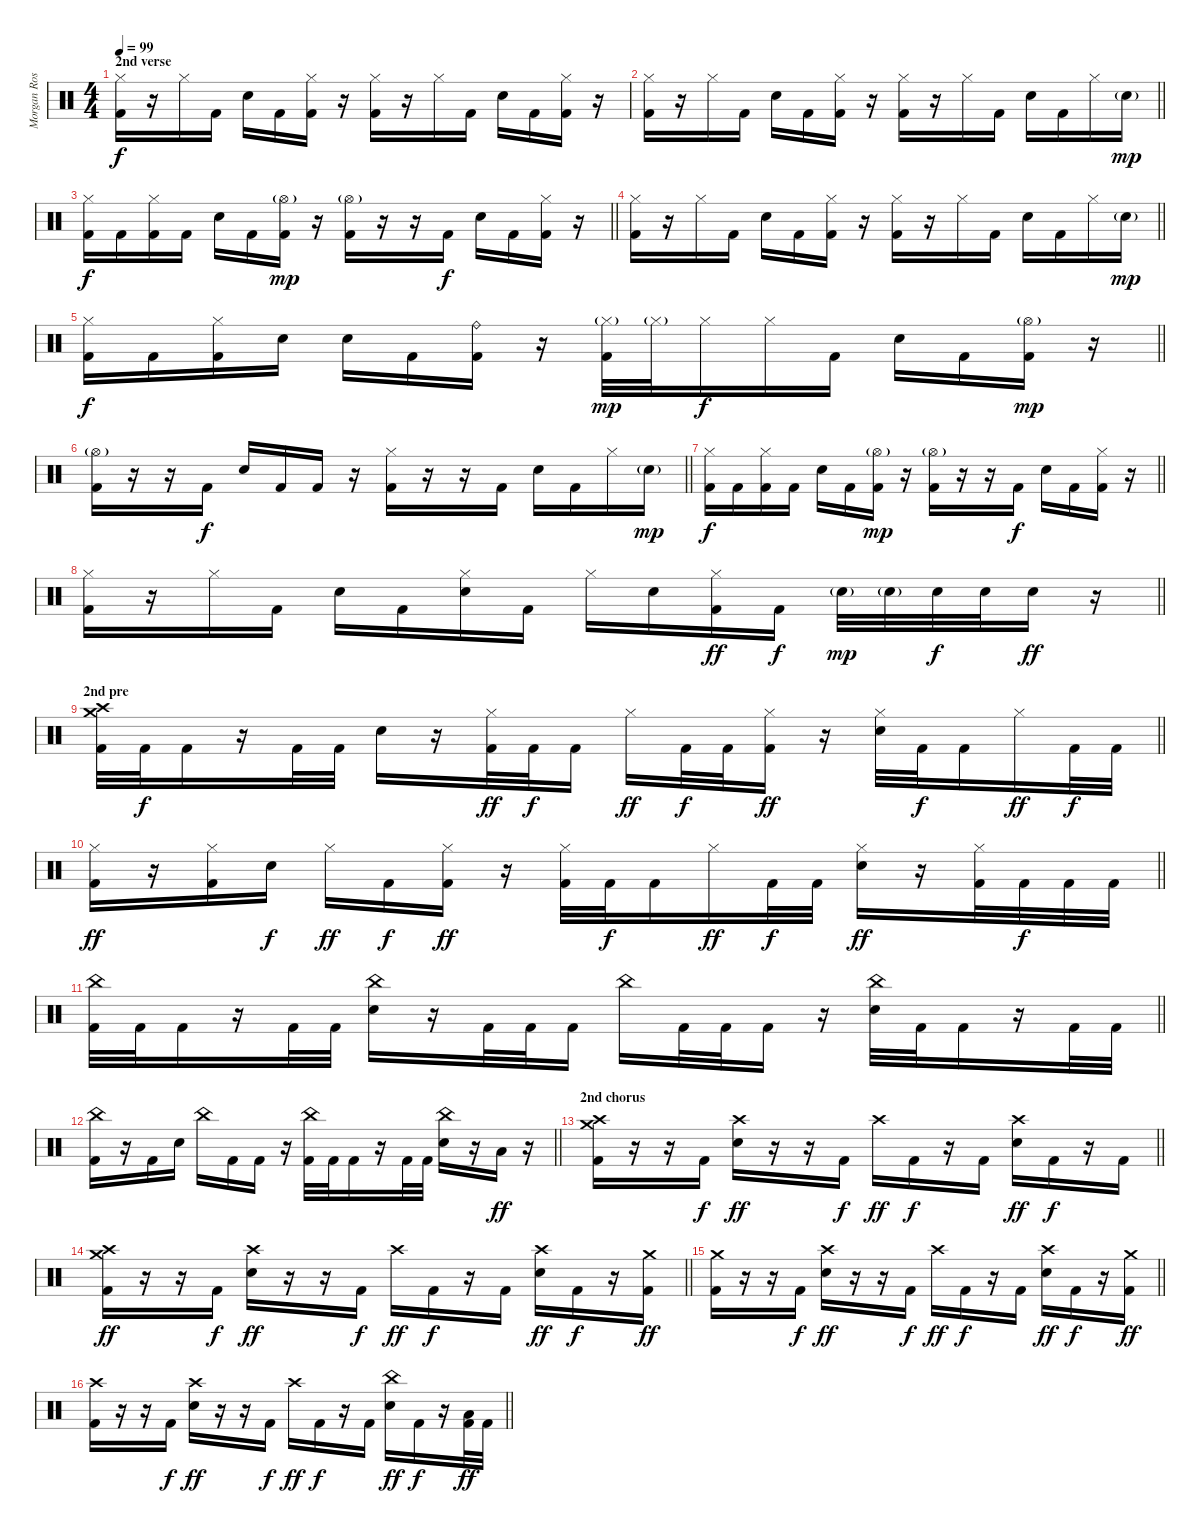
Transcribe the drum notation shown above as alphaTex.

\track ("Morgan Rose" "Morgan Ros") {instrument percussion}
\staff {score}
\articulation defaults
\ts (4 4)
\section ("" "2nd verse")
\tempo 99
\clef neutral
\ks c
("Hi-Hat (closed)" "Kick (hit) 2").16{dy f} r.16 "Hi-Hat (closed)".16 "Kick (hit) 2".16 "Snare (hit) 2".16 "Kick (hit) 2".16 ("Hi-Hat (closed)" "Kick (hit) 2").16 r.16 ("Hi-Hat (closed)" "Kick (hit) 2").16 r.16 "Hi-Hat (closed)".16 "Kick (hit) 2".16 "Snare (hit) 2".16 "Kick (hit) 2".16 ("Hi-Hat (closed)" "Kick (hit) 2").16 r.16 |
\barLineRight lightlight
("Hi-Hat (closed)" "Kick (hit) 2").16 r.16 "Hi-Hat (closed)".16 "Kick (hit) 2".16 "Snare (hit) 2".16 "Kick (hit) 2".16 ("Hi-Hat (closed)" "Kick (hit) 2").16 r.16 ("Hi-Hat (closed)" "Kick (hit) 2").16 r.16 "Hi-Hat (closed)".16 "Kick (hit) 2".16 "Snare (hit) 2".16 "Kick (hit) 2".16 "Hi-Hat (closed)".16 "Snare (hit) 2"{g}.16{dy mp} |
\barLineRight lightlight
("Hi-Hat (closed)" "Kick (hit) 2").16{dy f} "Kick (hit) 2".16 ("Hi-Hat (closed)" "Kick (hit) 2").16 "Kick (hit) 2".16 "Snare (hit) 2".16 "Kick (hit) 2".16 ("Hi-Hat (open)"{g} "Kick (hit) 2").16{dy mp} r.16 ("Hi-Hat (open)"{g} "Kick (hit) 2").16 r.16 r.16 "Kick (hit) 2".16{dy f} "Snare (hit) 2".16 "Kick (hit) 2".16 ("Hi-Hat (closed)" "Kick (hit) 2").16 r.16 |
\barLineRight lightlight
("Hi-Hat (closed)" "Kick (hit) 2").16 r.16 "Hi-Hat (closed)".16 "Kick (hit) 2".16 "Snare (hit) 2".16 "Kick (hit) 2".16 ("Hi-Hat (closed)" "Kick (hit) 2").16 r.16 ("Hi-Hat (closed)" "Kick (hit) 2").16 r.16 "Hi-Hat (closed)".16 "Kick (hit) 2".16 "Snare (hit) 2".16 "Kick (hit) 2".16 "Hi-Hat (closed)".16 "Snare (hit) 2"{g}.16{dy mp} |
\barLineRight lightlight
("Hi-Hat (closed)" "Kick (hit) 2").16{dy f} "Kick (hit) 2".16 ("Hi-Hat (closed)" "Kick (hit) 2").16 "Snare (hit) 2".16 "Snare (hit) 2".16 "Kick (hit) 2".16 ("Ride (bell)" "Kick (hit) 2").16 r.16 ("Hi-Hat (closed)"{g} "Kick (hit) 2").32{dy mp} "Hi-Hat (closed)"{g}.32 "Hi-Hat (closed)".16{dy f} "Hi-Hat (closed)".16 "Kick (hit) 2".16 "Snare (hit) 2".16 "Kick (hit) 2".16 ("Hi-Hat (open)"{g} "Kick (hit) 2").16{dy mp} r.16 |
\barLineRight lightlight
("Hi-Hat (open)"{g} "Kick (hit) 2").16 r.16 r.16 "Kick (hit) 2".16{dy f} "Snare (hit) 2".16 "Kick (hit) 2".16 "Kick (hit) 2".16 r.16 ("Hi-Hat (closed)" "Kick (hit) 2").16 r.16 r.16 "Kick (hit) 2".16 "Snare (hit) 2".16 "Kick (hit) 2".16 "Hi-Hat (closed)".16 "Snare (hit) 2"{g}.16{dy mp} |
\barLineRight lightlight
("Hi-Hat (closed)" "Kick (hit) 2").16{dy f} "Kick (hit) 2".16 ("Hi-Hat (closed)" "Kick (hit) 2").16 "Kick (hit) 2".16 "Snare (hit) 2".16 "Kick (hit) 2".16 ("Hi-Hat (open)"{g} "Kick (hit) 2").16{dy mp} r.16 ("Hi-Hat (open)"{g} "Kick (hit) 2").16 r.16 r.16 "Kick (hit) 2".16{dy f} "Snare (hit) 2".16 "Kick (hit) 2".16 ("Hi-Hat (closed)" "Kick (hit) 2").16 r.16 |
\barLineRight lightlight
("Hi-Hat (closed)" "Kick (hit) 2").16 r.16 "Hi-Hat (closed)".16 "Kick (hit) 2".16 "Snare (hit) 2".16 "Kick (hit) 2".16 ("Hi-Hat (closed)" "Snare (hit) 2").16 "Kick (hit) 2".16 "Hi-Hat (closed)".16 "Snare (hit) 2".16 ("Hi-Hat (closed)" "Kick (hit) 2").16{dy ff} "Kick (hit) 2".16{dy f} "Snare (hit) 2"{g}.32{dy mp} "Snare (hit) 2"{g}.32 "Snare (hit) 2".32{dy f} "Snare (hit) 2".32 "Snare (hit) 2".16{dy ff} r.16 |
\section ("" "2nd pre")
\barLineRight lightlight
("Crash medium (hit)" "Crash high (hit)" "Kick (hit) 2").32 "Kick (hit) 2".32{dy f} "Kick (hit) 2".16 r.16 "Kick (hit) 2".32 "Kick (hit) 2".32 "Snare (hit) 2".16 r.16 ("Hi-Hat (closed)" "Kick (hit) 2").32{dy ff} "Kick (hit) 2".32{dy f} "Kick (hit) 2".16 "Hi-Hat (closed)".16{dy ff} "Kick (hit) 2".32{dy f} "Kick (hit) 2".32 ("Hi-Hat (closed)" "Kick (hit) 2").16{dy ff} r.16 ("Hi-Hat (closed)" "Snare (hit) 2").32 "Kick (hit) 2".32{dy f} "Kick (hit) 2".16 "Hi-Hat (closed)".16{dy ff} "Kick (hit) 2".32{dy f} "Kick (hit) 2".32 |
\barLineRight lightlight
("Hi-Hat (closed)" "Kick (hit) 2").16{dy ff} r.16 ("Hi-Hat (closed)" "Kick (hit) 2").16 "Snare (hit) 2".16{dy f} "Hi-Hat (closed)".16{dy ff} "Kick (hit) 2".16{dy f} ("Hi-Hat (closed)" "Kick (hit) 2").16{dy ff} r.16 ("Hi-Hat (closed)" "Kick (hit) 2").32 "Kick (hit) 2".32{dy f} "Kick (hit) 2".16 "Hi-Hat (closed)".16{dy ff} "Kick (hit) 2".32{dy f} "Kick (hit) 2".32 ("Hi-Hat (closed)" "Snare (hit) 2").16{dy ff} r.16 ("Hi-Hat (closed)" "Kick (hit) 2").32 "Kick (hit) 2".32{dy f} "Kick (hit) 2".32 "Kick (hit) 2".32 |
\barLineRight lightlight
("China (hit)" "Kick (hit) 2").32 "Kick (hit) 2".32 "Kick (hit) 2".16 r.16 "Kick (hit) 2".32 "Kick (hit) 2".32 ("China (hit)" "Snare (hit) 2").16 r.16 "Kick (hit) 2".32 "Kick (hit) 2".32 "Kick (hit) 2".16 "China (hit)".16 "Kick (hit) 2".32 "Kick (hit) 2".32 "Kick (hit) 2".16 r.16 ("China (hit)" "Snare (hit) 2").32 "Kick (hit) 2".32 "Kick (hit) 2".16 r.16 "Kick (hit) 2".32 "Kick (hit) 2".32 |
\barLineRight lightlight
("China (hit)" "Kick (hit) 2").16 r.16 "Kick (hit) 2".16 "Snare (hit) 2".16 "China (hit)".16 "Kick (hit) 2".16 "Kick (hit) 2".16 r.16 ("China (hit)" "Kick (hit) 2").32 "Kick (hit) 2".32 "Kick (hit) 2".16 r.16 "Kick (hit) 2".32 "Kick (hit) 2".32 ("China (hit)" "Snare (hit) 2").16 r.16 "Low Tom (hit)".16{dy ff} r.16 |
\section ("" "2nd chorus")
\barLineRight lightlight
("Crash medium (hit)" "Crash high (hit)" "Kick (hit) 2").16 r.16 r.16 "Kick (hit) 2".16{dy f} ("Crash high (hit)" "Snare (hit) 2").16{dy ff} r.16 r.16 "Kick (hit) 2".16{dy f} "Crash high (hit)".16{dy ff} "Kick (hit) 2".16{dy f} r.16 "Kick (hit) 2".16 ("Crash high (hit)" "Snare (hit) 2").16{dy ff} "Kick (hit) 2".16{dy f} r.16 "Kick (hit) 2".16 |
\barLineRight lightlight
("Crash medium (hit)" "Crash high (hit)" "Kick (hit) 2").16{dy ff} r.16 r.16 "Kick (hit) 2".16{dy f} ("Crash high (hit)" "Snare (hit) 2").16{dy ff} r.16 r.16 "Kick (hit) 2".16{dy f} "Crash high (hit)".16{dy ff} "Kick (hit) 2".16{dy f} r.16 "Kick (hit) 2".16 ("Crash high (hit)" "Snare (hit) 2").16{dy ff} "Kick (hit) 2".16{dy f} r.16 ("Crash medium (hit)" "Kick (hit) 2").16{dy ff} |
\barLineRight lightlight
("Crash medium (hit)" "Kick (hit) 2").16 r.16 r.16 "Kick (hit) 2".16{dy f} ("Crash high (hit)" "Snare (hit) 2").16{dy ff} r.16 r.16 "Kick (hit) 2".16{dy f} "Crash high (hit)".16{dy ff} "Kick (hit) 2".16{dy f} r.16 "Kick (hit) 2".16 ("Crash high (hit)" "Snare (hit) 2").16{dy ff} "Kick (hit) 2".16{dy f} r.16 ("Crash medium (hit)" "Kick (hit) 2").16{dy ff} |
\barLineRight lightlight
("Crash high (hit)" "Kick (hit) 2").16 r.16 r.16 "Kick (hit) 2".16{dy f} ("Crash high (hit)" "Snare (hit) 2").16{dy ff} r.16 r.16 "Kick (hit) 2".16{dy f} "Crash high (hit)".16{dy ff} "Kick (hit) 2".16{dy f} r.16 "Kick (hit) 2".16 ("China (hit)" "Snare (hit) 2").16{dy ff} "Kick (hit) 2".16{dy f} r.16 ("Low Tom (hit)" "Kick (hit) 2").32{dy ff} "Kick (hit) 2".32
